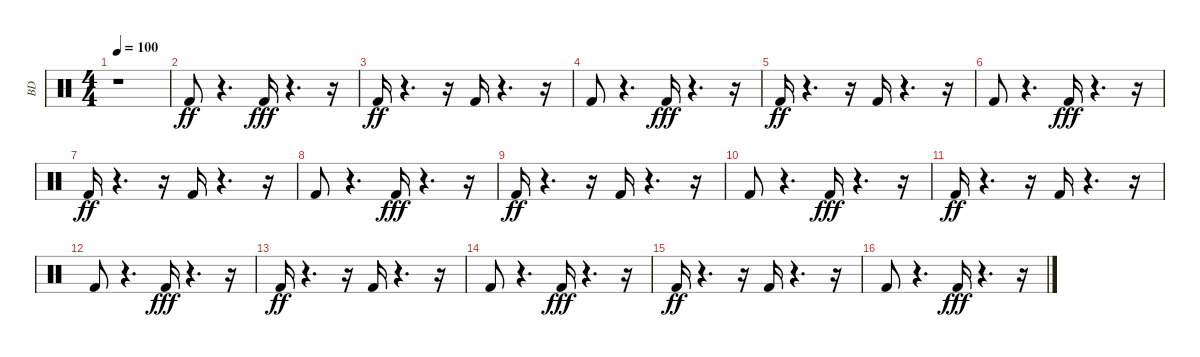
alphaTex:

\track ("BD" "BD") {instrument percussion}
\staff {score}
\articulation defaults
\ts (4 4)
\tempo 100
\clef neutral
\ks c
r.1{dy ff} |
"Kick (hit) 2".8 r.4{d} "Kick (hit) 2".16{dy fff} r.4{d} r.16 |
"Kick (hit) 2".16{dy ff} r.4{d} r.16 "Kick (hit) 2".16 r.4{d} r.16 |
"Kick (hit) 2".8 r.4{d} "Kick (hit) 2".16{dy fff} r.4{d} r.16 |
"Kick (hit) 2".16{dy ff} r.4{d} r.16 "Kick (hit) 2".16 r.4{d} r.16 |
"Kick (hit) 2".8 r.4{d} "Kick (hit) 2".16{dy fff} r.4{d} r.16 |
"Kick (hit) 2".16{dy ff} r.4{d} r.16 "Kick (hit) 2".16 r.4{d} r.16 |
"Kick (hit) 2".8 r.4{d} "Kick (hit) 2".16{dy fff} r.4{d} r.16 |
"Kick (hit) 2".16{dy ff} r.4{d} r.16 "Kick (hit) 2".16 r.4{d} r.16 |
"Kick (hit) 2".8 r.4{d} "Kick (hit) 2".16{dy fff} r.4{d} r.16 |
"Kick (hit) 2".16{dy ff} r.4{d} r.16 "Kick (hit) 2".16 r.4{d} r.16 |
"Kick (hit) 2".8 r.4{d} "Kick (hit) 2".16{dy fff} r.4{d} r.16 |
"Kick (hit) 2".16{dy ff} r.4{d} r.16 "Kick (hit) 2".16 r.4{d} r.16 |
"Kick (hit) 2".8 r.4{d} "Kick (hit) 2".16{dy fff} r.4{d} r.16 |
"Kick (hit) 2".16{dy ff} r.4{d} r.16 "Kick (hit) 2".16 r.4{d} r.16 |
"Kick (hit) 2".8 r.4{d} "Kick (hit) 2".16{dy fff} r.4{d} r.16
